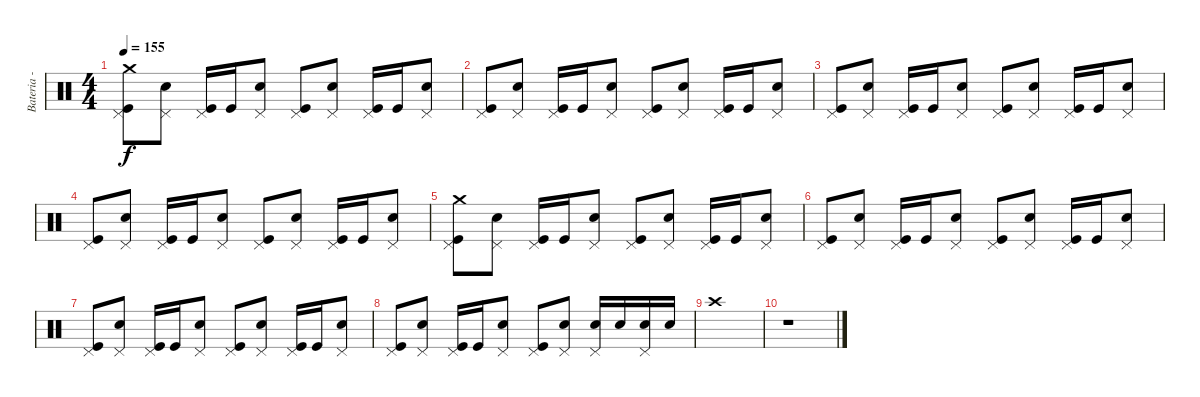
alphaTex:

\track ("Bateria - Larzon" "Bateria - ") {instrument percussion}
\staff {score}
\articulation defaults
\ts (4 4)
\tempo 155
\clef neutral
\ks c
("Kick (hit)" "Pedal Hi-Hat (hit)" "Crash medium (hit)").8{dy f} ("Snare (hit) 2" "Pedal Hi-Hat (hit)").8 ("Kick (hit)" "Pedal Hi-Hat (hit)").16 "Kick (hit)".16 ("Snare (hit) 2" "Pedal Hi-Hat (hit)").8 ("Pedal Hi-Hat (hit)" "Kick (hit)").8 ("Snare (hit) 2" "Pedal Hi-Hat (hit)").8 ("Kick (hit)" "Pedal Hi-Hat (hit)").16 "Kick (hit)".16 ("Snare (hit) 2" "Pedal Hi-Hat (hit)").8 |
("Pedal Hi-Hat (hit)" "Kick (hit)").8 ("Snare (hit) 2" "Pedal Hi-Hat (hit)").8 ("Kick (hit)" "Pedal Hi-Hat (hit)").16 "Kick (hit)".16 ("Snare (hit) 2" "Pedal Hi-Hat (hit)").8 ("Kick (hit)" "Pedal Hi-Hat (hit)").8 ("Snare (hit) 2" "Pedal Hi-Hat (hit)").8 ("Kick (hit)" "Pedal Hi-Hat (hit)").16 "Kick (hit)".16 ("Snare (hit) 2" "Pedal Hi-Hat (hit)").8 |
("Pedal Hi-Hat (hit)" "Kick (hit)").8 ("Snare (hit) 2" "Pedal Hi-Hat (hit)").8 ("Kick (hit)" "Pedal Hi-Hat (hit)").16 "Kick (hit)".16 ("Snare (hit) 2" "Pedal Hi-Hat (hit)").8 ("Kick (hit)" "Pedal Hi-Hat (hit)").8 ("Snare (hit) 2" "Pedal Hi-Hat (hit)").8 ("Kick (hit)" "Pedal Hi-Hat (hit)").16 "Kick (hit)".16 ("Snare (hit) 2" "Pedal Hi-Hat (hit)").8 |
("Pedal Hi-Hat (hit)" "Kick (hit)").8 ("Snare (hit) 2" "Pedal Hi-Hat (hit)").8 ("Kick (hit)" "Pedal Hi-Hat (hit)").16 "Kick (hit)".16 ("Snare (hit) 2" "Pedal Hi-Hat (hit)").8 ("Kick (hit)" "Pedal Hi-Hat (hit)").8 ("Snare (hit) 2" "Pedal Hi-Hat (hit)").8 ("Kick (hit)" "Pedal Hi-Hat (hit)").16 "Kick (hit)".16 ("Snare (hit) 2" "Pedal Hi-Hat (hit)").8 |
("Kick (hit)" "Pedal Hi-Hat (hit)" "Crash medium (hit)").8 ("Snare (hit) 2" "Pedal Hi-Hat (hit)").8 ("Kick (hit)" "Pedal Hi-Hat (hit)").16 "Kick (hit)".16 ("Snare (hit) 2" "Pedal Hi-Hat (hit)").8 ("Pedal Hi-Hat (hit)" "Kick (hit)").8 ("Snare (hit) 2" "Pedal Hi-Hat (hit)").8 ("Kick (hit)" "Pedal Hi-Hat (hit)").16 "Kick (hit)".16 ("Snare (hit) 2" "Pedal Hi-Hat (hit)").8 |
("Pedal Hi-Hat (hit)" "Kick (hit)").8 ("Snare (hit) 2" "Pedal Hi-Hat (hit)").8 ("Kick (hit)" "Pedal Hi-Hat (hit)").16 "Kick (hit)".16 ("Snare (hit) 2" "Pedal Hi-Hat (hit)").8 ("Kick (hit)" "Pedal Hi-Hat (hit)").8 ("Snare (hit) 2" "Pedal Hi-Hat (hit)").8 ("Kick (hit)" "Pedal Hi-Hat (hit)").16 "Kick (hit)".16 ("Snare (hit) 2" "Pedal Hi-Hat (hit)").8 |
("Pedal Hi-Hat (hit)" "Kick (hit)").8 ("Snare (hit) 2" "Pedal Hi-Hat (hit)").8 ("Kick (hit)" "Pedal Hi-Hat (hit)").16 "Kick (hit)".16 ("Snare (hit) 2" "Pedal Hi-Hat (hit)").8 ("Kick (hit)" "Pedal Hi-Hat (hit)").8 ("Snare (hit) 2" "Pedal Hi-Hat (hit)").8 ("Kick (hit)" "Pedal Hi-Hat (hit)").16 "Kick (hit)".16 ("Snare (hit) 2" "Pedal Hi-Hat (hit)").8 |
("Pedal Hi-Hat (hit)" "Kick (hit)").8 ("Snare (hit) 2" "Pedal Hi-Hat (hit)").8 ("Kick (hit)" "Pedal Hi-Hat (hit)").16 "Kick (hit)".16 ("Snare (hit) 2" "Pedal Hi-Hat (hit)").8 ("Kick (hit)" "Pedal Hi-Hat (hit)").8 ("Snare (hit) 2" "Pedal Hi-Hat (hit)").8 ("Snare (hit) 2" "Pedal Hi-Hat (hit)").16 "Snare (hit) 2".16 ("Snare (hit) 2" "Pedal Hi-Hat (hit)").16 "Snare (hit) 2".16 |
"Crash high (hit)".1 |
r.1
